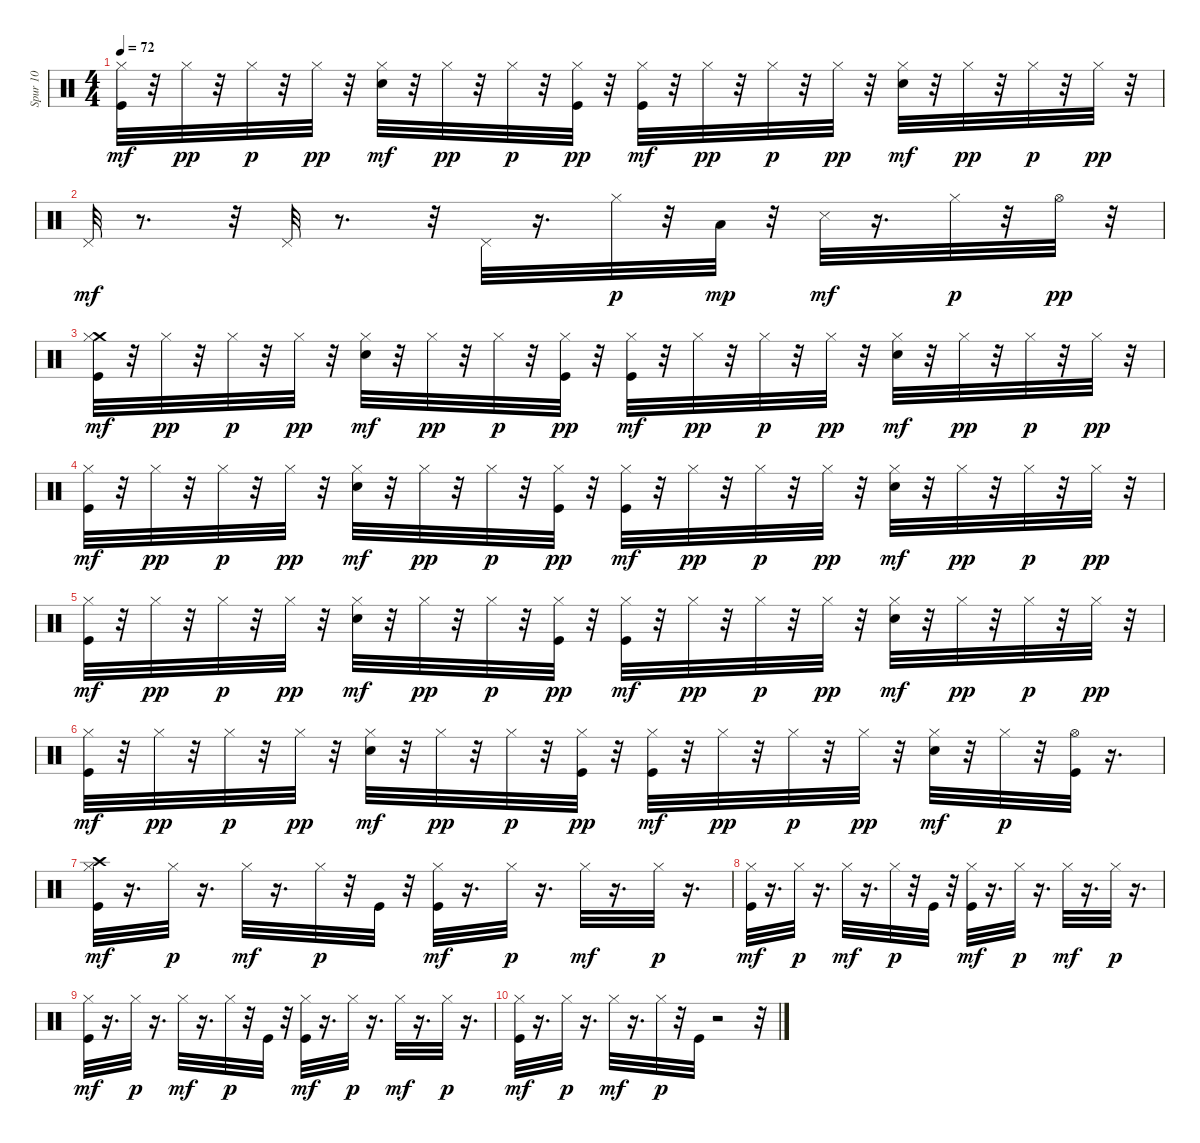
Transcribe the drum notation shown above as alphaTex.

\track ("Spur 10" "Spur 10") {instrument percussion}
\staff {score}
\articulation defaults
\ts (4 4)
\tempo 72
\clef neutral
\ks c
("Kick (hit)" "Hi-Hat (closed)").32{dy mf} r.32 "Hi-Hat (closed)".32{dy pp} r.32 "Hi-Hat (closed)".32{dy p} r.32 "Hi-Hat (closed)".32{dy pp} r.32 ("Snare (hit) 2" "Hi-Hat (closed)").32{dy mf} r.32 "Hi-Hat (closed)".32{dy pp} r.32 "Hi-Hat (closed)".32{dy p} r.32 ("Kick (hit)" "Hi-Hat (closed)").32{dy pp} r.32 ("Kick (hit)" "Hi-Hat (closed)").32{dy mf} r.32 "Hi-Hat (closed)".32{dy pp} r.32 "Hi-Hat (closed)".32{dy p} r.32 "Hi-Hat (closed)".32{dy pp} r.32 ("Snare (hit) 2" "Hi-Hat (closed)").32{dy mf} r.32 "Hi-Hat (closed)".32{dy pp} r.32 "Hi-Hat (closed)".32{dy p} r.32 "Hi-Hat (closed)".32{dy pp} r.32 |
"Pedal Hi-Hat (hit)".32{dy mf} r.8{d} r.32 "Pedal Hi-Hat (hit)".32 r.8{d} r.32 "Pedal Hi-Hat (hit)".32 r.16{d} "Hi-Hat (closed)".32{dy p} r.32 "Low Tom (hit)".32{dy mp} r.32 "Snare (side stick) 3".32{dy mf} r.16{d} "Hi-Hat (closed)".32{dy p} r.32 "Hi-Hat (open)".32{dy pp} r.32 |
("Crash medium (hit)" "Kick (hit)" "Hi-Hat (closed)").32{dy mf} r.32 "Hi-Hat (closed)".32{dy pp} r.32 "Hi-Hat (closed)".32{dy p} r.32 "Hi-Hat (closed)".32{dy pp} r.32 ("Snare (hit) 2" "Hi-Hat (closed)").32{dy mf} r.32 "Hi-Hat (closed)".32{dy pp} r.32 "Hi-Hat (closed)".32{dy p} r.32 ("Kick (hit)" "Hi-Hat (closed)").32{dy pp} r.32 ("Kick (hit)" "Hi-Hat (closed)").32{dy mf} r.32 "Hi-Hat (closed)".32{dy pp} r.32 "Hi-Hat (closed)".32{dy p} r.32 "Hi-Hat (closed)".32{dy pp} r.32 ("Snare (hit) 2" "Hi-Hat (closed)").32{dy mf} r.32 "Hi-Hat (closed)".32{dy pp} r.32 "Hi-Hat (closed)".32{dy p} r.32 "Hi-Hat (closed)".32{dy pp} r.32 |
("Kick (hit)" "Hi-Hat (closed)").32{dy mf} r.32 "Hi-Hat (closed)".32{dy pp} r.32 "Hi-Hat (closed)".32{dy p} r.32 "Hi-Hat (closed)".32{dy pp} r.32 ("Snare (hit) 2" "Hi-Hat (closed)").32{dy mf} r.32 "Hi-Hat (closed)".32{dy pp} r.32 "Hi-Hat (closed)".32{dy p} r.32 ("Kick (hit)" "Hi-Hat (closed)").32{dy pp} r.32 ("Kick (hit)" "Hi-Hat (closed)").32{dy mf} r.32 "Hi-Hat (closed)".32{dy pp} r.32 "Hi-Hat (closed)".32{dy p} r.32 "Hi-Hat (closed)".32{dy pp} r.32 ("Snare (hit) 2" "Hi-Hat (closed)").32{dy mf} r.32 "Hi-Hat (closed)".32{dy pp} r.32 "Hi-Hat (closed)".32{dy p} r.32 "Hi-Hat (closed)".32{dy pp} r.32 |
("Kick (hit)" "Hi-Hat (closed)").32{dy mf} r.32 "Hi-Hat (closed)".32{dy pp} r.32 "Hi-Hat (closed)".32{dy p} r.32 "Hi-Hat (closed)".32{dy pp} r.32 ("Snare (hit) 2" "Hi-Hat (closed)").32{dy mf} r.32 "Hi-Hat (closed)".32{dy pp} r.32 "Hi-Hat (closed)".32{dy p} r.32 ("Kick (hit)" "Hi-Hat (closed)").32{dy pp} r.32 ("Kick (hit)" "Hi-Hat (closed)").32{dy mf} r.32 "Hi-Hat (closed)".32{dy pp} r.32 "Hi-Hat (closed)".32{dy p} r.32 "Hi-Hat (closed)".32{dy pp} r.32 ("Snare (hit) 2" "Hi-Hat (closed)").32{dy mf} r.32 "Hi-Hat (closed)".32{dy pp} r.32 "Hi-Hat (closed)".32{dy p} r.32 "Hi-Hat (closed)".32{dy pp} r.32 |
("Kick (hit)" "Hi-Hat (closed)").32{dy mf} r.32 "Hi-Hat (closed)".32{dy pp} r.32 "Hi-Hat (closed)".32{dy p} r.32 "Hi-Hat (closed)".32{dy pp} r.32 ("Snare (hit) 2" "Hi-Hat (closed)").32{dy mf} r.32 "Hi-Hat (closed)".32{dy pp} r.32 "Hi-Hat (closed)".32{dy p} r.32 ("Kick (hit)" "Hi-Hat (closed)").32{dy pp} r.32 ("Kick (hit)" "Hi-Hat (closed)").32{dy mf} r.32 "Hi-Hat (closed)".32{dy pp} r.32 "Hi-Hat (closed)".32{dy p} r.32 "Hi-Hat (closed)".32{dy pp} r.32 ("Snare (hit) 2" "Hi-Hat (closed)").32{dy mf} r.32 "Hi-Hat (closed)".32{dy p} r.32 ("Kick (hit)" "Hi-Hat (open)").32 r.16{d} |
("Crash high (hit)" "Kick (hit)" "Hi-Hat (closed)").32{dy mf} r.16{d} "Hi-Hat (closed)".32{dy p} r.16{d} "Hi-Hat (closed)".32{dy mf} r.16{d} "Hi-Hat (closed)".32{dy p} r.32 "Kick (hit)".32 r.32 ("Kick (hit)" "Hi-Hat (closed)").32{dy mf} r.16{d} "Hi-Hat (closed)".32{dy p} r.16{d} "Hi-Hat (closed)".32{dy mf} r.16{d} "Hi-Hat (closed)".32{dy p} r.16{d} |
("Kick (hit)" "Hi-Hat (closed)").32{dy mf} r.16{d} "Hi-Hat (closed)".32{dy p} r.16{d} "Hi-Hat (closed)".32{dy mf} r.16{d} "Hi-Hat (closed)".32{dy p} r.32 "Kick (hit)".32 r.32 ("Kick (hit)" "Hi-Hat (closed)").32{dy mf} r.16{d} "Hi-Hat (closed)".32{dy p} r.16{d} "Hi-Hat (closed)".32{dy mf} r.16{d} "Hi-Hat (closed)".32{dy p} r.16{d} |
("Kick (hit)" "Hi-Hat (closed)").32{dy mf} r.16{d} "Hi-Hat (closed)".32{dy p} r.16{d} "Hi-Hat (closed)".32{dy mf} r.16{d} "Hi-Hat (closed)".32{dy p} r.32 "Kick (hit)".32 r.32 ("Kick (hit)" "Hi-Hat (closed)").32{dy mf} r.16{d} "Hi-Hat (closed)".32{dy p} r.16{d} "Hi-Hat (closed)".32{dy mf} r.16{d} "Hi-Hat (closed)".32{dy p} r.16{d} |
("Kick (hit)" "Hi-Hat (closed)").32{dy mf} r.16{d} "Hi-Hat (closed)".32{dy p} r.16{d} "Hi-Hat (closed)".32{dy mf} r.16{d} "Hi-Hat (closed)".32{dy p} r.32 "Kick (hit)".32 r.2 r.32
